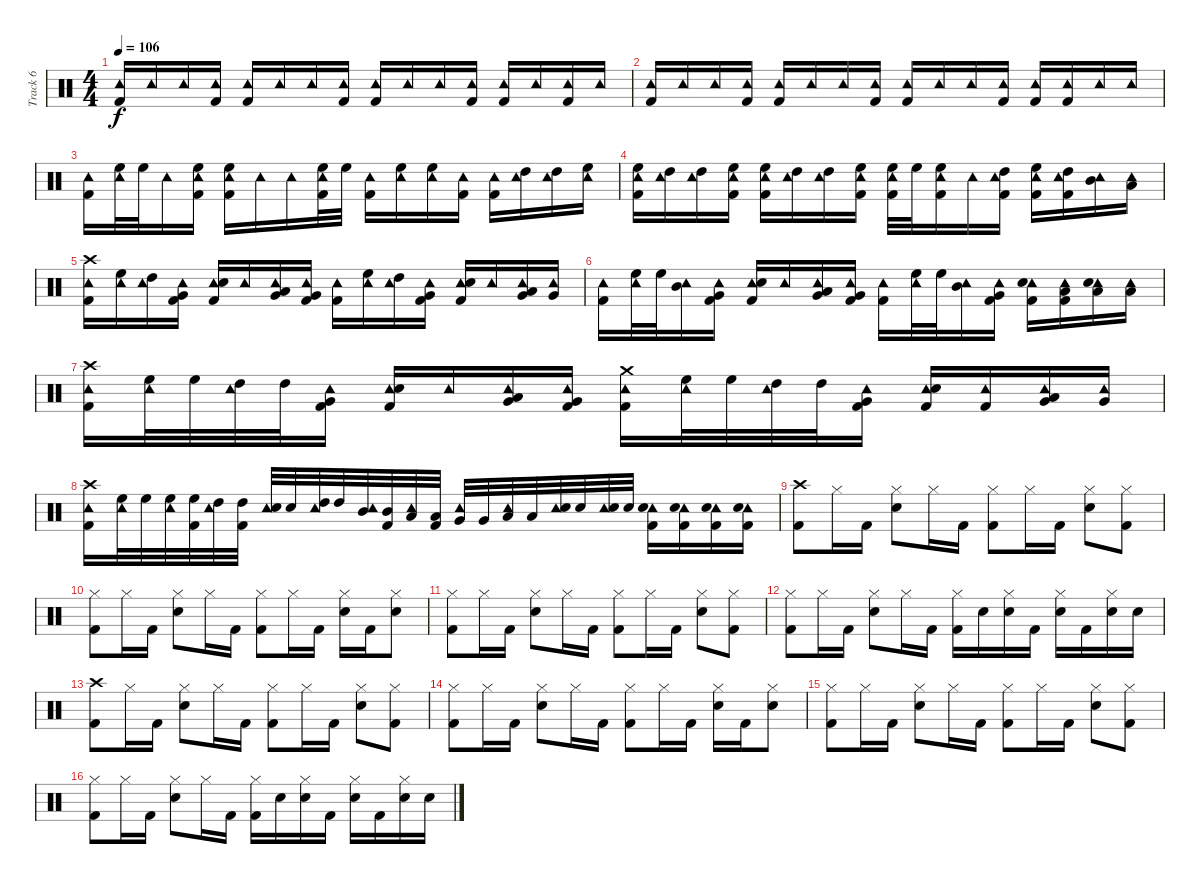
\track ("Track 6" "Track 6") {instrument percussion}
\staff {score}
\articulation defaults
\ts (4 4)
\tempo 106
\clef neutral
\ks c
("Tambourine (hit)" "Kick (hit) 2").16{dy f} "Tambourine (hit)".16 "Tambourine (hit)".16 ("Tambourine (hit)" "Kick (hit) 2").16 ("Tambourine (hit)" "Kick (hit) 2").16 "Tambourine (hit)".16 "Tambourine (hit)".16 ("Tambourine (hit)" "Kick (hit) 2").16 ("Tambourine (hit)" "Kick (hit) 2").16 "Tambourine (hit)".16 "Tambourine (hit)".16 ("Tambourine (hit)" "Kick (hit) 2").16 ("Tambourine (hit)" "Kick (hit) 2").16 "Tambourine (hit)".16 ("Tambourine (hit)" "Kick (hit) 2").16 "Tambourine (hit)".16 |
("Tambourine (hit)" "Kick (hit) 2").16 "Tambourine (hit)".16 "Tambourine (hit)".16 ("Tambourine (hit)" "Kick (hit) 2").16 ("Tambourine (hit)" "Kick (hit) 2").16 "Tambourine (hit)".16 "Tambourine (hit)".16 ("Tambourine (hit)" "Kick (hit) 2").16 ("Tambourine (hit)" "Kick (hit) 2").16 "Tambourine (hit)".16 "Tambourine (hit)".16 ("Tambourine (hit)" "Kick (hit) 2").16 ("Tambourine (hit)" "Kick (hit) 2").16 ("Tambourine (hit)" "Kick (hit) 2").16 "Tambourine (hit)".16 "Tambourine (hit)".16 |
("Tambourine (hit)" "Kick (hit) 2").16 ("Tambourine (hit)" "High Floor Tom (hit)").32 "High Floor Tom (hit)".32 "Tambourine (hit)".16 ("Tambourine (hit)" "High Floor Tom (hit)" "Kick (hit) 2").16 ("Tambourine (hit)" "High Floor Tom (hit)" "Kick (hit) 2").16 "Tambourine (hit)".16 "Tambourine (hit)".16 ("Tambourine (hit)" "High Floor Tom (hit)" "Kick (hit) 2").32 "High Floor Tom (hit)".32 ("Tambourine (hit)" "Kick (hit) 2").16 ("Tambourine (hit)" "High Floor Tom (hit)").16 ("Tambourine (hit)" "High Floor Tom (hit)").16 ("Tambourine (hit)" "Kick (hit) 2").16 ("Tambourine (hit)" "Kick (hit) 2").16 ("Tambourine (hit)" "High Tom (hit)").16 ("Tambourine (hit)" "High Tom (hit)").16 ("Tambourine (hit)" "High Floor Tom (hit)").16 |
("Tambourine (hit)" "High Floor Tom (hit)" "Kick (hit) 2").16 ("Tambourine (hit)" "High Tom (hit)").16 ("Tambourine (hit)" "High Tom (hit)").16 ("Tambourine (hit)" "High Floor Tom (hit)" "Kick (hit) 2").16 ("Tambourine (hit)" "High Floor Tom (hit)" "Kick (hit) 2").16 ("Tambourine (hit)" "High Tom (hit)").16 ("Tambourine (hit)" "High Tom (hit)").16 ("Tambourine (hit)" "High Floor Tom (hit)" "Kick (hit) 2").16 ("Tambourine (hit)" "High Floor Tom (hit)" "Kick (hit) 2").32 "High Floor Tom (hit)".32 ("Tambourine (hit)" "High Floor Tom (hit)" "Kick (hit) 2").16 "Tambourine (hit)".16 ("Tambourine (hit)" "High Tom (hit)" "Kick (hit) 2").16 ("Tambourine (hit)" "High Floor Tom (hit)" "Kick (hit) 2").16 ("Tambourine (hit)" "High Tom (hit)" "Kick (hit) 2").16 ("Tambourine (hit)" "Mid Tom (hit)").16 ("Tambourine (hit)" "Low Tom (hit)").16 |
("Tambourine (hit)" "Crash high (hit)" "Kick (hit) 2").16 ("Tambourine (hit)" "High Floor Tom (hit)").16 ("Tambourine (hit)" "High Tom (hit)").16 ("Tambourine (hit)" "Very Low Tom (hit)" "Kick (hit) 2").16 ("Tambourine (hit)" "Snare (hit) 2" "Kick (hit) 2").16 "Tambourine (hit)".16 ("Tambourine (hit)" "Very Low Tom (hit)" "Low Floor Tom (hit)").16 ("Tambourine (hit)" "Very Low Tom (hit)" "Kick (hit) 2").16 ("Tambourine (hit)" "Kick (hit) 2").16 ("Tambourine (hit)" "High Floor Tom (hit)").16 ("Tambourine (hit)" "High Tom (hit)").16 ("Tambourine (hit)" "Very Low Tom (hit)" "Kick (hit) 2").16 ("Tambourine (hit)" "Snare (hit) 2" "Kick (hit) 2").16 "Tambourine (hit)".16 ("Tambourine (hit)" "Very Low Tom (hit)" "Low Floor Tom (hit)").16 ("Tambourine (hit)" "Very Low Tom (hit)").16 |
("Tambourine (hit)" "Kick (hit) 2").16 ("Tambourine (hit)" "High Floor Tom (hit)").32 "High Floor Tom (hit)".32 ("Tambourine (hit)" "Mid Tom (hit)").16 ("Tambourine (hit)" "Very Low Tom (hit)" "Kick (hit) 2").16 ("Tambourine (hit)" "Snare (hit) 2" "Kick (hit) 2").16 "Tambourine (hit)".16 ("Tambourine (hit)" "Very Low Tom (hit)" "Low Floor Tom (hit)").16 ("Tambourine (hit)" "Very Low Tom (hit)" "Kick (hit) 2").16 ("Tambourine (hit)" "Kick (hit) 2").16 ("Tambourine (hit)" "High Floor Tom (hit)").32 "High Floor Tom (hit)".32 ("Tambourine (hit)" "Mid Tom (hit)").16 ("Tambourine (hit)" "Very Low Tom (hit)" "Kick (hit) 2").16 ("Tambourine (hit)" "Snare (hit) 2" "Kick (hit) 2").16 ("Tambourine (hit)" "Low Floor Tom (hit)" "Kick (hit) 2").16 ("Tambourine (hit)" "Low Tom (hit)" "Snare (hit) 2").16 ("Tambourine (hit)" "Low Floor Tom (hit)").16 |
("Tambourine (hit)" "Crash high (hit)" "Kick (hit) 2").16 ("Tambourine (hit)" "High Floor Tom (hit)").32 "High Floor Tom (hit)".32 ("Tambourine (hit)" "High Tom (hit)").32 "High Tom (hit)".32 ("Tambourine (hit)" "Very Low Tom (hit)" "Kick (hit) 2").16 ("Tambourine (hit)" "Snare (hit) 2" "Kick (hit) 2").16 "Tambourine (hit)".16 ("Tambourine (hit)" "Very Low Tom (hit)" "Low Floor Tom (hit)").16 ("Tambourine (hit)" "Very Low Tom (hit)" "Kick (hit) 2").16 ("Tambourine (hit)" "Crash medium (hit)" "Kick (hit) 2").16 ("Tambourine (hit)" "High Floor Tom (hit)").32 "High Floor Tom (hit)".32 ("Tambourine (hit)" "High Tom (hit)").32 "High Tom (hit)".32 ("Tambourine (hit)" "Very Low Tom (hit)" "Kick (hit) 2").16 ("Tambourine (hit)" "Snare (hit) 2" "Kick (hit) 2").16 ("Tambourine (hit)" "Kick (hit) 2").16 ("Tambourine (hit)" "Very Low Tom (hit)" "Low Floor Tom (hit)").16 ("Tambourine (hit)" "Very Low Tom (hit)").16 |
("Tambourine (hit)" "Crash high (hit)" "Kick (hit) 2").16 ("Tambourine (hit)" "High Floor Tom (hit)").32 "High Floor Tom (hit)".32 ("Tambourine (hit)" "High Floor Tom (hit)").32 ("High Floor Tom (hit)" "Kick (hit) 2").32 ("Tambourine (hit)" "High Tom (hit)").32 ("High Tom (hit)" "Kick (hit) 2").32 ("Tambourine (hit)" "Snare (hit) 2").32 "Snare (hit) 2".32 ("Tambourine (hit)" "High Tom (hit)").32 "High Tom (hit)".32 ("Tambourine (hit)" "Mid Tom (hit)").32 ("Mid Tom (hit)" "Kick (hit) 2").32 ("Tambourine (hit)" "Low Tom (hit)").32 ("Low Tom (hit)" "Kick (hit) 2").32 ("Tambourine (hit)" "Very Low Tom (hit)").32 "Very Low Tom (hit)".32 ("Tambourine (hit)" "Low Floor Tom (hit)").32 "Low Floor Tom (hit)".32 ("Tambourine (hit)" "Snare (hit) 2").32 "Snare (hit) 2".32 ("Tambourine (hit)" "Snare (hit) 2").32 "Snare (hit) 2".32 ("Tambourine (hit)" "Snare (hit) 2" "Kick (hit) 2").16 ("Tambourine (hit)" "Snare (hit) 2" "Kick (hit) 2").16 ("Tambourine (hit)" "Snare (hit) 2" "Kick (hit) 2").16 ("Tambourine (hit)" "Snare (hit) 2" "Kick (hit) 2").16 |
("Crash high (hit)" "Kick (hit) 2").8 "Hi-Hat (closed)".16 "Kick (hit) 2".16 ("Hi-Hat (closed)" "Snare (hit) 2").8 "Hi-Hat (closed)".16 "Kick (hit) 2".16 ("Hi-Hat (closed)" "Kick (hit) 2").8 "Hi-Hat (closed)".16 "Kick (hit) 2".16 ("Hi-Hat (closed)" "Snare (hit) 2").8 ("Hi-Hat (closed)" "Kick (hit) 2").8 |
("Hi-Hat (closed)" "Kick (hit) 2").8 "Hi-Hat (closed)".16 "Kick (hit) 2".16 ("Hi-Hat (closed)" "Snare (hit) 2").8 "Hi-Hat (closed)".16 "Kick (hit) 2".16 ("Hi-Hat (closed)" "Kick (hit) 2").8 "Hi-Hat (closed)".16 "Kick (hit) 2".16 ("Hi-Hat (closed)" "Snare (hit) 2").16 "Kick (hit) 2".16 ("Hi-Hat (closed)" "Snare (hit) 2").8 |
("Hi-Hat (closed)" "Kick (hit) 2").8 "Hi-Hat (closed)".16 "Kick (hit) 2".16 ("Hi-Hat (closed)" "Snare (hit) 2").8 "Hi-Hat (closed)".16 "Kick (hit) 2".16 ("Hi-Hat (closed)" "Kick (hit) 2").8 "Hi-Hat (closed)".16 "Kick (hit) 2".16 ("Hi-Hat (closed)" "Snare (hit) 2").8 ("Hi-Hat (closed)" "Kick (hit) 2").8 |
("Hi-Hat (closed)" "Kick (hit) 2").8 "Hi-Hat (closed)".16 "Kick (hit) 2".16 ("Hi-Hat (closed)" "Snare (hit) 2").8 "Hi-Hat (closed)".16 "Kick (hit) 2".16 ("Hi-Hat (closed)" "Kick (hit) 2").16 "Snare (hit) 2".16 ("Hi-Hat (closed)" "Snare (hit) 2").16 "Kick (hit) 2".16 ("Hi-Hat (closed)" "Snare (hit) 2").16 "Kick (hit) 2".16 ("Hi-Hat (closed)" "Snare (hit) 2").16 "Snare (hit) 2".16 |
("Crash high (hit)" "Kick (hit) 2").8 "Hi-Hat (closed)".16 "Kick (hit) 2".16 ("Hi-Hat (closed)" "Snare (hit) 2").8 "Hi-Hat (closed)".16 "Kick (hit) 2".16 ("Hi-Hat (closed)" "Kick (hit) 2").8 "Hi-Hat (closed)".16 "Kick (hit) 2".16 ("Hi-Hat (closed)" "Snare (hit) 2").8 ("Hi-Hat (closed)" "Kick (hit) 2").8 |
("Hi-Hat (closed)" "Kick (hit) 2").8 "Hi-Hat (closed)".16 "Kick (hit) 2".16 ("Hi-Hat (closed)" "Snare (hit) 2").8 "Hi-Hat (closed)".16 "Kick (hit) 2".16 ("Hi-Hat (closed)" "Kick (hit) 2").8 "Hi-Hat (closed)".16 "Kick (hit) 2".16 ("Hi-Hat (closed)" "Snare (hit) 2").16 "Kick (hit) 2".16 ("Hi-Hat (closed)" "Snare (hit) 2").8 |
("Hi-Hat (closed)" "Kick (hit) 2").8 "Hi-Hat (closed)".16 "Kick (hit) 2".16 ("Hi-Hat (closed)" "Snare (hit) 2").8 "Hi-Hat (closed)".16 "Kick (hit) 2".16 ("Hi-Hat (closed)" "Kick (hit) 2").8 "Hi-Hat (closed)".16 "Kick (hit) 2".16 ("Hi-Hat (closed)" "Snare (hit) 2").8 ("Hi-Hat (closed)" "Kick (hit) 2").8 |
("Hi-Hat (closed)" "Kick (hit) 2").8 "Hi-Hat (closed)".16 "Kick (hit) 2".16 ("Hi-Hat (closed)" "Snare (hit) 2").8 "Hi-Hat (closed)".16 "Kick (hit) 2".16 ("Hi-Hat (closed)" "Kick (hit) 2").16 "Snare (hit) 2".16 ("Hi-Hat (closed)" "Snare (hit) 2").16 "Kick (hit) 2".16 ("Hi-Hat (closed)" "Snare (hit) 2").16 "Kick (hit) 2".16 ("Hi-Hat (closed)" "Snare (hit) 2").16 "Snare (hit) 2".16
